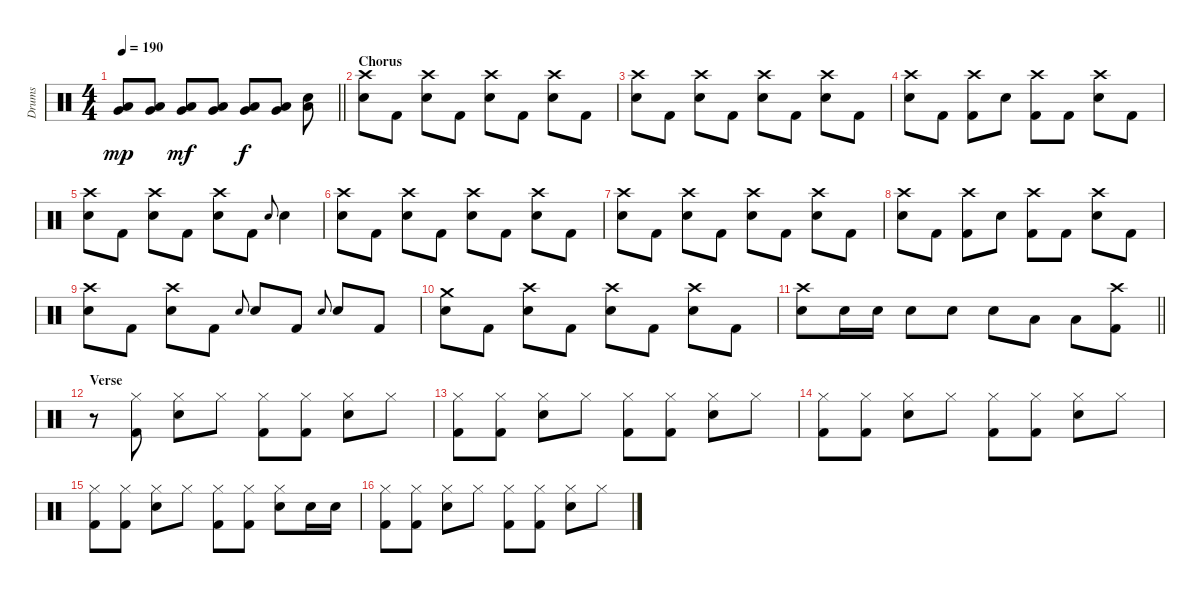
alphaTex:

\track ("Drums" "Drums") {instrument percussion}
\staff {score}
\articulation defaults
\ts (4 4)
\tempo 190
\clef neutral
\barLineRight lightlight
\ks c
("Very Low Tom (hit)" "Low Floor Tom (hit)").8{dy mp} ("Very Low Tom (hit)" "Low Floor Tom (hit)").8 ("Very Low Tom (hit)" "Low Floor Tom (hit)").8{dy mf} ("Very Low Tom (hit)" "Low Floor Tom (hit)").8 ("Very Low Tom (hit)" "Low Floor Tom (hit)").8{dy f} ("Very Low Tom (hit)" "Low Floor Tom (hit)").8 ("Electric Snare (hit)" "Low Floor Tom (hit)").8 |
\section ("" "Chorus ")
("Crash high (hit)" "Electric Snare (hit)").8 "Kick (hit) 2".8 ("Crash high (hit)" "Electric Snare (hit)").8 "Kick (hit) 2".8 ("Crash high (hit)" "Electric Snare (hit)").8 "Kick (hit) 2".8 ("Crash high (hit)" "Electric Snare (hit)").8 "Kick (hit) 2".8 |
("Crash high (hit)" "Electric Snare (hit)").8 "Kick (hit) 2".8 ("Crash high (hit)" "Electric Snare (hit)").8 "Kick (hit) 2".8 ("Crash high (hit)" "Electric Snare (hit)").8 "Kick (hit) 2".8 ("Crash high (hit)" "Electric Snare (hit)").8 "Kick (hit) 2".8 |
("Crash high (hit)" "Electric Snare (hit)").8 "Kick (hit) 2".8 ("Crash high (hit)" "Kick (hit) 2").8 "Electric Snare (hit)".8 ("Crash high (hit)" "Kick (hit) 2").8 "Kick (hit) 2".8 ("Crash high (hit)" "Electric Snare (hit)").8 "Kick (hit) 2".8 |
("Crash high (hit)" "Electric Snare (hit)").8 "Kick (hit) 2".8 ("Crash high (hit)" "Electric Snare (hit)").8 "Kick (hit) 2".8 ("Crash high (hit)" "Electric Snare (hit)").8 "Kick (hit) 2".8 "Electric Snare (hit)".8{gr onbeat} "Electric Snare (hit)".4 |
("Crash high (hit)" "Electric Snare (hit)").8 "Kick (hit) 2".8 ("Crash high (hit)" "Electric Snare (hit)").8 "Kick (hit) 2".8 ("Crash high (hit)" "Electric Snare (hit)").8 "Kick (hit) 2".8 ("Crash high (hit)" "Electric Snare (hit)").8 "Kick (hit) 2".8 |
("Crash high (hit)" "Electric Snare (hit)").8 "Kick (hit) 2".8 ("Crash high (hit)" "Electric Snare (hit)").8 "Kick (hit) 2".8 ("Crash high (hit)" "Electric Snare (hit)").8 "Kick (hit) 2".8 ("Crash high (hit)" "Electric Snare (hit)").8 "Kick (hit) 2".8 |
("Crash high (hit)" "Electric Snare (hit)").8 "Kick (hit) 2".8 ("Crash high (hit)" "Kick (hit) 2").8 "Electric Snare (hit)".8 ("Crash high (hit)" "Kick (hit) 2").8 "Kick (hit) 2".8 ("Crash high (hit)" "Electric Snare (hit)").8 "Kick (hit) 2".8 |
("Crash high (hit)" "Electric Snare (hit)").8 "Kick (hit) 2".8 ("Crash high (hit)" "Electric Snare (hit)").8 "Kick (hit) 2".8 "Electric Snare (hit)".8{gr onbeat} "Electric Snare (hit)".8 "Kick (hit) 2".8 "Electric Snare (hit)".8{gr onbeat} "Electric Snare (hit)".8 "Kick (hit) 2".8 |
("Crash medium (hit)" "Electric Snare (hit)").8 "Kick (hit) 2".8 ("Crash high (hit)" "Electric Snare (hit)").8 "Kick (hit) 2".8 ("Crash high (hit)" "Electric Snare (hit)").8 "Kick (hit) 2".8 ("Crash high (hit)" "Electric Snare (hit)").8 "Kick (hit) 2".8 |
\barLineRight lightlight
("Crash high (hit)" "Electric Snare (hit)").8 "Electric Snare (hit)".16 "Electric Snare (hit)".16 "Electric Snare (hit)".8 "Electric Snare (hit)".8 "Electric Snare (hit)".8 "Low Tom (hit)".8 "Low Floor Tom (hit)".8 ("Crash high (hit)" "Kick (hit) 2").8 |
\section ("" "Verse ")
r.8 ("Hi-Hat (closed)" "Kick (hit) 2").8 ("Hi-Hat (closed)" "Electric Snare (hit)").8 "Hi-Hat (closed)".8 ("Hi-Hat (closed)" "Kick (hit) 2").8 ("Hi-Hat (closed)" "Kick (hit) 2").8 ("Hi-Hat (closed)" "Electric Snare (hit)").8 "Hi-Hat (closed)".8 |
("Hi-Hat (closed)" "Kick (hit) 2").8 ("Hi-Hat (closed)" "Kick (hit) 2").8 ("Hi-Hat (closed)" "Electric Snare (hit)").8 "Hi-Hat (closed)".8 ("Hi-Hat (closed)" "Kick (hit) 2").8 ("Hi-Hat (closed)" "Kick (hit) 2").8 ("Hi-Hat (closed)" "Electric Snare (hit)").8 "Hi-Hat (closed)".8 |
("Hi-Hat (closed)" "Kick (hit) 2").8 ("Hi-Hat (closed)" "Kick (hit) 2").8 ("Hi-Hat (closed)" "Electric Snare (hit)").8 "Hi-Hat (closed)".8 ("Hi-Hat (closed)" "Kick (hit) 2").8 ("Hi-Hat (closed)" "Kick (hit) 2").8 ("Hi-Hat (closed)" "Electric Snare (hit)").8 "Hi-Hat (closed)".8 |
("Hi-Hat (closed)" "Kick (hit) 2").8 ("Hi-Hat (closed)" "Kick (hit) 2").8 ("Hi-Hat (closed)" "Electric Snare (hit)").8 "Hi-Hat (closed)".8 ("Hi-Hat (closed)" "Kick (hit) 2").8 ("Hi-Hat (closed)" "Kick (hit) 2").8 ("Hi-Hat (closed)" "Electric Snare (hit)").8 "Electric Snare (hit)".16 "Electric Snare (hit)".16 |
("Hi-Hat (closed)" "Kick (hit) 2").8 ("Hi-Hat (closed)" "Kick (hit) 2").8 ("Hi-Hat (closed)" "Electric Snare (hit)").8 "Hi-Hat (closed)".8 ("Hi-Hat (closed)" "Kick (hit) 2").8 ("Hi-Hat (closed)" "Kick (hit) 2").8 ("Hi-Hat (closed)" "Electric Snare (hit)").8 "Hi-Hat (closed)".8
